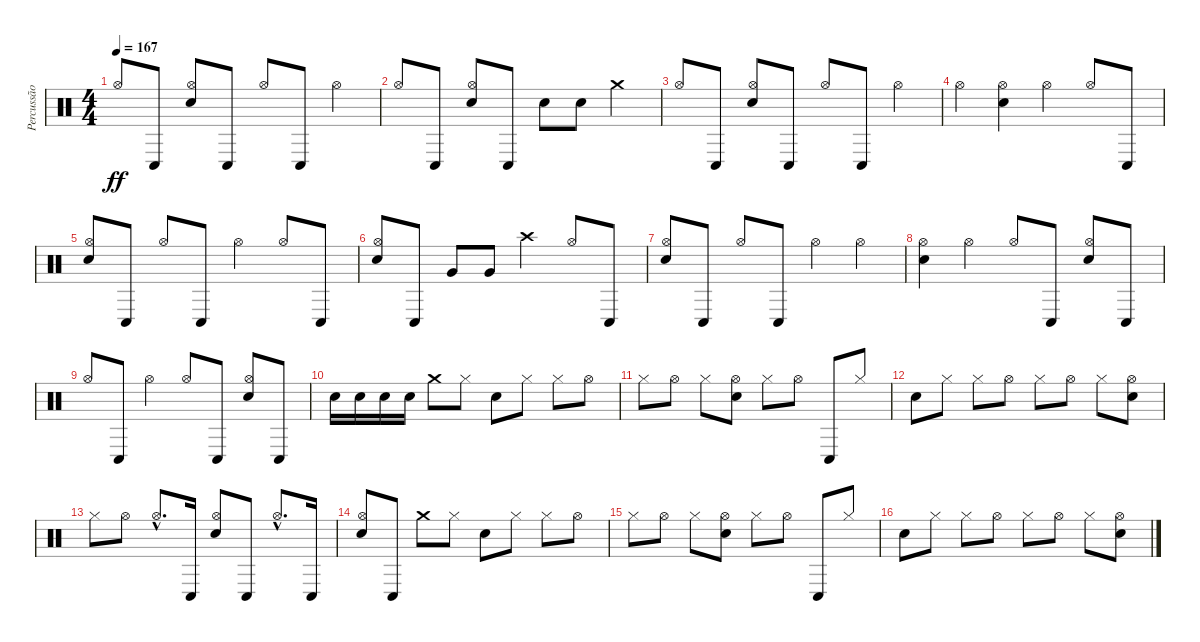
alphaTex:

\track ("Percussão" "Percussão") {instrument percussion}
\staff {score}
\articulation defaults
\ts (4 4)
\tempo 167
\clef neutral
\ks c "Hi-Hat (open)".8{dy ff} "Conga low (hit)".8
("Electric Snare (hit)" "Hi-Hat (open)").8 "Conga low (hit)".8 "Hi-Hat (open)".8 "Conga low (hit)".8 "Hi-Hat (open)".4 |
"Hi-Hat (open)".8 "Conga low (hit)".8 ("Electric Snare (hit)" "Hi-Hat (open)").8 "Conga low (hit)".8 "Electric Snare (hit)".8 "Electric Snare (hit)".8 "Crash medium (hit)".4 |
"Hi-Hat (open)".8 "Conga low (hit)".8 ("Electric Snare (hit)" "Hi-Hat (open)").8 "Conga low (hit)".8 "Hi-Hat (open)".8 "Conga low (hit)".8 "Hi-Hat (open)".4 |
"Hi-Hat (open)".4 ("Electric Snare (hit)" "Hi-Hat (open)").4 "Hi-Hat (open)".4 "Hi-Hat (open)".8 "Conga low (hit)".8 |
("Electric Snare (hit)" "Hi-Hat (open)").8 "Conga low (hit)".8 "Hi-Hat (open)".8 "Conga low (hit)".8 "Hi-Hat (open)".4 "Hi-Hat (open)".8 "Conga low (hit)".8 |
("Electric Snare (hit)" "Hi-Hat (open)").8 "Conga low (hit)".8 "Very Low Tom (hit)".8 "Very Low Tom (hit)".8 "Crash high (hit)".4 "Hi-Hat (open)".8 "Conga low (hit)".8 |
("Electric Snare (hit)" "Hi-Hat (open)").8 "Conga low (hit)".8 "Hi-Hat (open)".8 "Conga low (hit)".8 "Hi-Hat (open)".4 "Hi-Hat (open)".4 |
("Electric Snare (hit)" "Hi-Hat (open)").4 "Hi-Hat (open)".4 "Hi-Hat (open)".8 "Conga low (hit)".8 ("Electric Snare (hit)" "Hi-Hat (open)").8 "Conga low (hit)".8 |
"Hi-Hat (open)".8 "Conga low (hit)".8 "Hi-Hat (open)".4 "Hi-Hat (open)".8 "Conga low (hit)".8 ("Electric Snare (hit)" "Hi-Hat (open)").8 "Conga low (hit)".8 |
"Electric Snare (hit)".16 "Electric Snare (hit)".16 "Electric Snare (hit)".16 "Electric Snare (hit)".16 "Crash medium (hit)".8 "Hi-Hat (closed)".8 "Electric Snare (hit)".8 "Hi-Hat (closed)".8 "Hi-Hat (closed)".8 "Hi-Hat (open)".8 |
"Hi-Hat (closed)".8 "Hi-Hat (open)".8 "Hi-Hat (closed)".8 ("Electric Snare (hit)" "Hi-Hat (open)").8 "Hi-Hat (closed)".8 "Hi-Hat (open)".8 "Conga low (hit)".8 "Hi-Hat (closed)".8 |
"Electric Snare (hit)".8 "Hi-Hat (closed)".8 "Hi-Hat (closed)".8 "Hi-Hat (open)".8 "Hi-Hat (closed)".8 "Hi-Hat (open)".8 "Hi-Hat (closed)".8 ("Electric Snare (hit)" "Hi-Hat (open)").8 |
"Hi-Hat (closed)".8 "Hi-Hat (open)".8 "Hi-Hat (open)"{hac}.8{d} "Conga low (hit)".16 ("Electric Snare (hit)" "Hi-Hat (open)").8 "Conga low (hit)".8 "Hi-Hat (open)"{hac}.8{d} "Conga low (hit)".16 |
("Electric Snare (hit)" "Hi-Hat (open)").8 "Conga low (hit)".8 "Crash medium (hit)".8 "Hi-Hat (closed)".8 "Electric Snare (hit)".8 "Hi-Hat (closed)".8 "Hi-Hat (closed)".8 "Hi-Hat (open)".8 |
"Hi-Hat (closed)".8 "Hi-Hat (open)".8 "Hi-Hat (closed)".8 ("Electric Snare (hit)" "Hi-Hat (open)").8 "Hi-Hat (closed)".8 "Hi-Hat (open)".8 "Conga low (hit)".8 "Hi-Hat (closed)".8 |
"Electric Snare (hit)".8 "Hi-Hat (closed)".8 "Hi-Hat (closed)".8 "Hi-Hat (open)".8 "Hi-Hat (closed)".8 "Hi-Hat (open)".8 "Hi-Hat (closed)".8 ("Electric Snare (hit)" "Hi-Hat (open)").8
